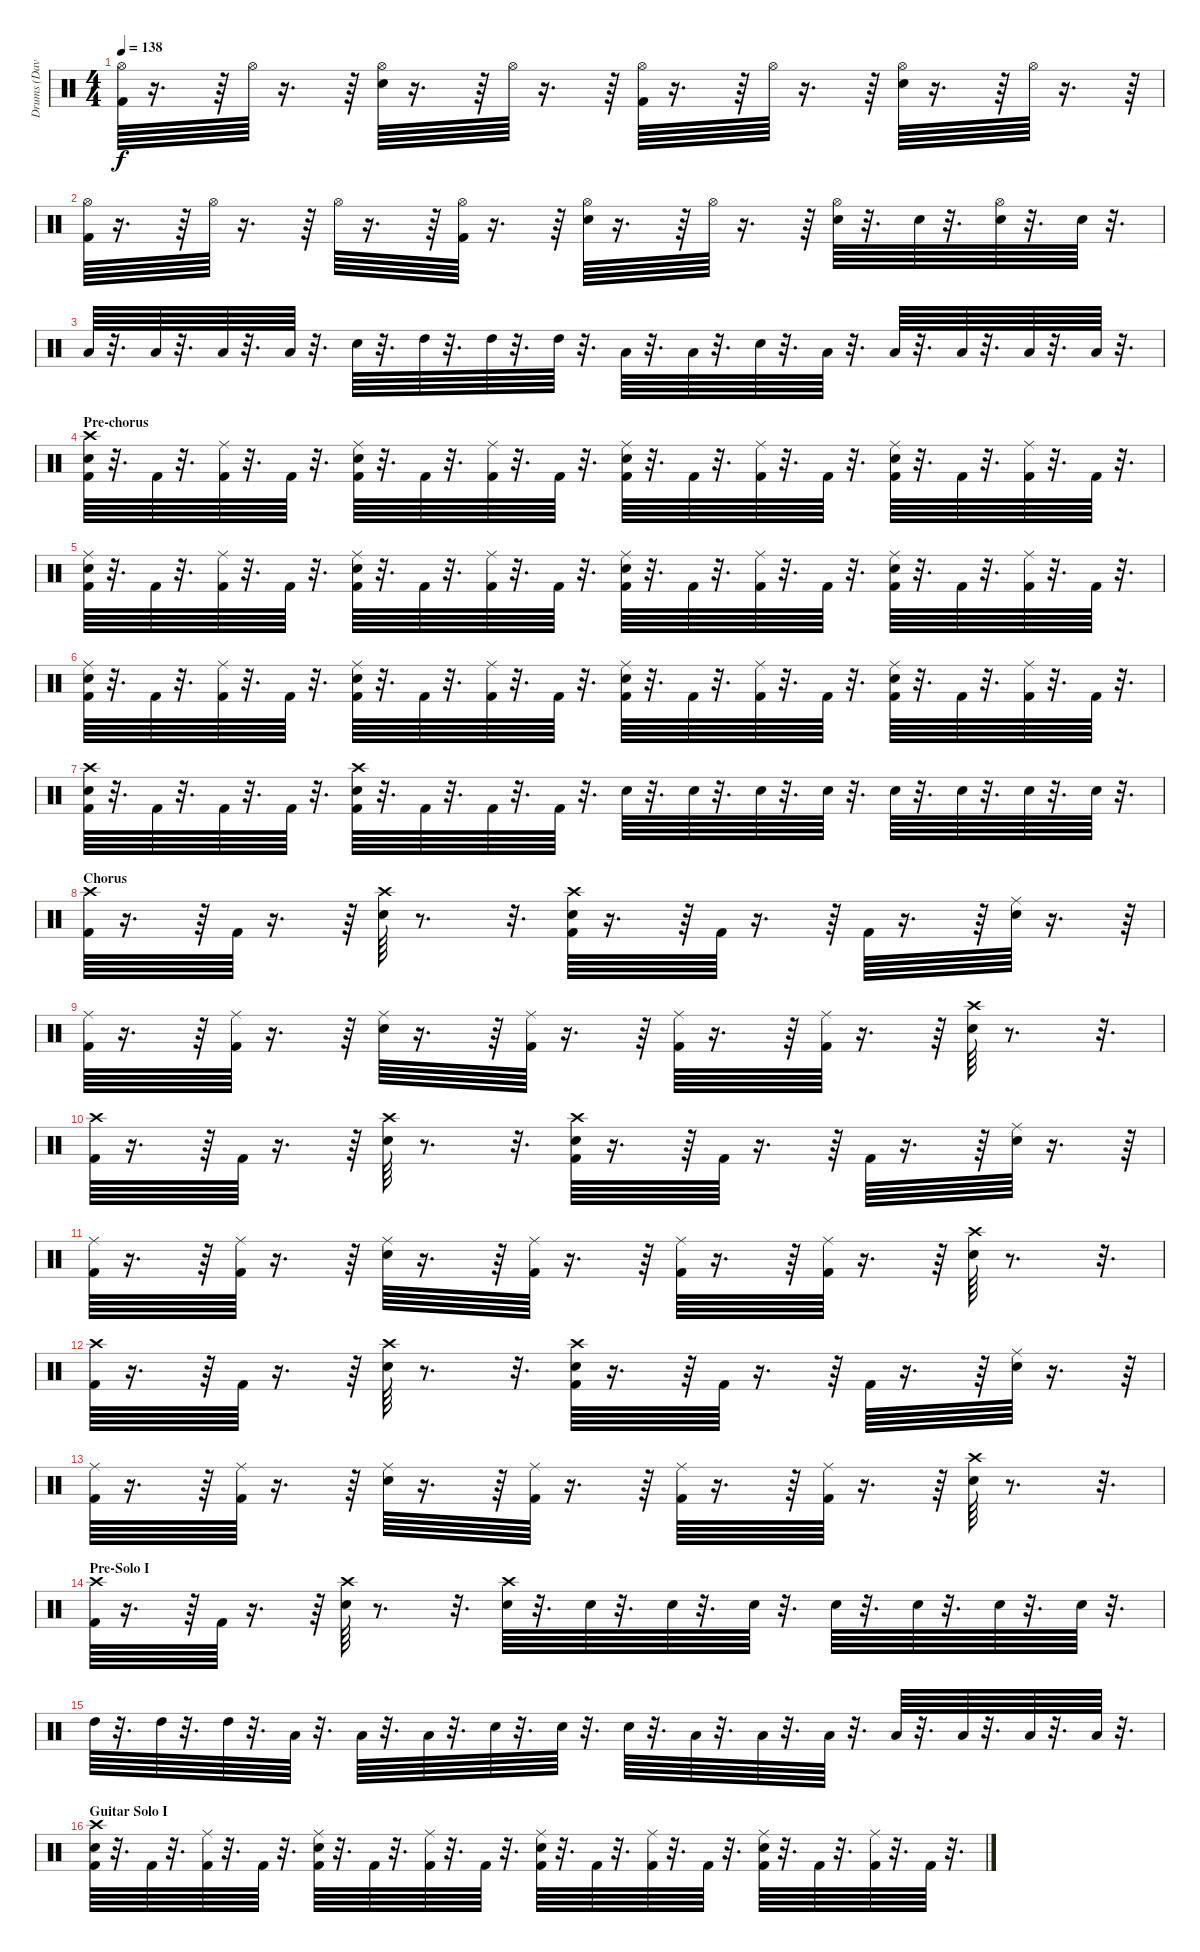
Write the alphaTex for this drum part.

\track ("Drums (Dave)" "Drums (Dav") {instrument percussion}
\staff {score}
\articulation defaults
\ts (4 4)
\tempo 138
\clef neutral
\ks c
("Kick (hit) 2" "Hi-Hat (open)").64{dy f} r.16{d} r.64 "Hi-Hat (open)".64 r.16{d} r.64 ("Snare (hit) 2" "Hi-Hat (open)").64 r.16{d} r.64 "Hi-Hat (open)".64 r.16{d} r.64 ("Kick (hit) 2" "Hi-Hat (open)").64 r.16{d} r.64 "Hi-Hat (open)".64 r.16{d} r.64 ("Snare (hit) 2" "Hi-Hat (open)").64 r.16{d} r.64 "Hi-Hat (open)".64 r.16{d} r.64 |
("Hi-Hat (open)" "Kick (hit) 2").64 r.16{d} r.64 "Hi-Hat (open)".64 r.16{d} r.64 "Hi-Hat (open)".64 r.16{d} r.64 ("Hi-Hat (open)" "Kick (hit) 2").64 r.16{d} r.64 ("Hi-Hat (open)" "Snare (hit) 2").64 r.16{d} r.64 "Hi-Hat (open)".64 r.16{d} r.64 ("Hi-Hat (open)" "Snare (hit) 2").64 r.32{d} "Snare (hit) 2".64 r.32{d} ("Hi-Hat (open)" "Snare (hit) 2").64 r.32{d} "Snare (hit) 2".64 r.32{d} |
"Low Tom (hit)".64 r.32{d} "Low Tom (hit)".64 r.32{d} "Low Tom (hit)".64 r.32{d} "Low Tom (hit)".64 r.32{d} "Snare (hit) 2".64 r.32{d} "High Tom (hit)".64 r.32{d} "High Tom (hit)".64 r.32{d} "High Tom (hit)".64 r.32{d} "Low Tom (hit)".64 r.32{d} "Low Tom (hit)".64 r.32{d} "Snare (hit) 2".64 r.32{d} "Low Tom (hit)".64 r.32{d} "Low Floor Tom (hit)".64 r.32{d} "Low Floor Tom (hit)".64 r.32{d} "Low Floor Tom (hit)".64 r.32{d} "Low Floor Tom (hit)".64 r.32{d} |
\section ("" "Pre-chorus")
("Kick (hit) 2" "Snare (hit) 2" "Crash high (hit)").64 r.32{d} "Kick (hit) 2".64 r.32{d} ("Kick (hit) 2" "Ride (middle)").64 r.32{d} "Kick (hit) 2".64 r.32{d} ("Kick (hit) 2" "Snare (hit) 2" "Ride (middle)").64 r.32{d} "Kick (hit) 2".64 r.32{d} ("Kick (hit) 2" "Ride (middle)").64 r.32{d} "Kick (hit) 2".64 r.32{d} ("Kick (hit) 2" "Snare (hit) 2" "Ride (middle)").64 r.32{d} "Kick (hit) 2".64 r.32{d} ("Kick (hit) 2" "Ride (middle)").64 r.32{d} "Kick (hit) 2".64 r.32{d} ("Kick (hit) 2" "Snare (hit) 2" "Ride (middle)").64 r.32{d} "Kick (hit) 2".64 r.32{d} ("Kick (hit) 2" "Ride (middle)").64 r.32{d} "Kick (hit) 2".64 r.32{d} |
("Kick (hit) 2" "Snare (hit) 2" "Ride (middle)").64 r.32{d} "Kick (hit) 2".64 r.32{d} ("Kick (hit) 2" "Ride (middle)").64 r.32{d} "Kick (hit) 2".64 r.32{d} ("Kick (hit) 2" "Snare (hit) 2" "Ride (middle)").64 r.32{d} "Kick (hit) 2".64 r.32{d} ("Kick (hit) 2" "Ride (middle)").64 r.32{d} "Kick (hit) 2".64 r.32{d} ("Kick (hit) 2" "Snare (hit) 2" "Ride (middle)").64 r.32{d} "Kick (hit) 2".64 r.32{d} ("Kick (hit) 2" "Ride (middle)").64 r.32{d} "Kick (hit) 2".64 r.32{d} ("Kick (hit) 2" "Snare (hit) 2" "Ride (middle)").64 r.32{d} "Kick (hit) 2".64 r.32{d} ("Kick (hit) 2" "Ride (middle)").64 r.32{d} "Kick (hit) 2".64 r.32{d} |
("Kick (hit) 2" "Snare (hit) 2" "Ride (middle)").64 r.32{d} "Kick (hit) 2".64 r.32{d} ("Kick (hit) 2" "Ride (middle)").64 r.32{d} "Kick (hit) 2".64 r.32{d} ("Kick (hit) 2" "Snare (hit) 2" "Ride (middle)").64 r.32{d} "Kick (hit) 2".64 r.32{d} ("Kick (hit) 2" "Ride (middle)").64 r.32{d} "Kick (hit) 2".64 r.32{d} ("Kick (hit) 2" "Snare (hit) 2" "Ride (middle)").64 r.32{d} "Kick (hit) 2".64 r.32{d} ("Kick (hit) 2" "Ride (middle)").64 r.32{d} "Kick (hit) 2".64 r.32{d} ("Kick (hit) 2" "Snare (hit) 2" "Ride (middle)").64 r.32{d} "Kick (hit) 2".64 r.32{d} ("Kick (hit) 2" "Ride (middle)").64 r.32{d} "Kick (hit) 2".64 r.32{d} |
("Crash high (hit)" "Kick (hit) 2" "Snare (hit) 2").64 r.32{d} "Kick (hit) 2".64 r.32{d} "Kick (hit) 2".64 r.32{d} "Kick (hit) 2".64 r.32{d} ("Kick (hit) 2" "Crash high (hit)" "Snare (hit) 2").64 r.32{d} "Kick (hit) 2".64 r.32{d} "Kick (hit) 2".64 r.32{d} "Kick (hit) 2".64 r.32{d} "Snare (hit) 2".64 r.32{d} "Snare (hit) 2".64 r.32{d} "Snare (hit) 2".64 r.32{d} "Snare (hit) 2".64 r.32{d} "Snare (hit) 2".64 r.32{d} "Snare (hit) 2".64 r.32{d} "Snare (hit) 2".64 r.32{d} "Snare (hit) 2".64 r.32{d} |
\section ("" "Chorus")
("Kick (hit) 2" "Crash high (hit)").64 r.16{d} r.64 "Kick (hit) 2".64 r.16{d} r.64 ("Snare (hit) 2" "Crash high (hit)").64 r.8{d} r.32{d} ("Crash high (hit)" "Snare (hit) 2" "Kick (hit) 2").64 r.16{d} r.64 "Kick (hit) 2".64 r.16{d} r.64 "Kick (hit) 2".64 r.16{d} r.64 ("Ride (middle)" "Snare (hit) 2").64 r.16{d} r.64 |
("Ride (middle)" "Kick (hit) 2").64 r.16{d} r.64 ("Ride (middle)" "Kick (hit) 2").64 r.16{d} r.64 ("Ride (middle)" "Snare (hit) 2").64 r.16{d} r.64 ("Ride (middle)" "Kick (hit) 2").64 r.16{d} r.64 ("Ride (middle)" "Kick (hit) 2").64 r.16{d} r.64 ("Ride (middle)" "Kick (hit) 2").64 r.16{d} r.64 ("Snare (hit) 2" "Crash high (hit)").64 r.8{d} r.32{d} |
("Kick (hit) 2" "Crash high (hit)").64 r.16{d} r.64 "Kick (hit) 2".64 r.16{d} r.64 ("Snare (hit) 2" "Crash high (hit)").64 r.8{d} r.32{d} ("Crash high (hit)" "Snare (hit) 2" "Kick (hit) 2").64 r.16{d} r.64 "Kick (hit) 2".64 r.16{d} r.64 "Kick (hit) 2".64 r.16{d} r.64 ("Snare (hit) 2" "Ride (middle)").64 r.16{d} r.64 |
("Ride (middle)" "Kick (hit) 2").64 r.16{d} r.64 ("Ride (middle)" "Kick (hit) 2").64 r.16{d} r.64 ("Ride (middle)" "Snare (hit) 2").64 r.16{d} r.64 ("Ride (middle)" "Kick (hit) 2").64 r.16{d} r.64 ("Ride (middle)" "Kick (hit) 2").64 r.16{d} r.64 ("Ride (middle)" "Kick (hit) 2").64 r.16{d} r.64 ("Snare (hit) 2" "Crash high (hit)").64 r.8{d} r.32{d} |
("Kick (hit) 2" "Crash high (hit)").64 r.16{d} r.64 "Kick (hit) 2".64 r.16{d} r.64 ("Snare (hit) 2" "Crash high (hit)").64 r.8{d} r.32{d} ("Crash high (hit)" "Snare (hit) 2" "Kick (hit) 2").64 r.16{d} r.64 "Kick (hit) 2".64 r.16{d} r.64 "Kick (hit) 2".64 r.16{d} r.64 ("Ride (middle)" "Snare (hit) 2").64 r.16{d} r.64 |
("Ride (middle)" "Kick (hit) 2").64 r.16{d} r.64 ("Ride (middle)" "Kick (hit) 2").64 r.16{d} r.64 ("Ride (middle)" "Snare (hit) 2").64 r.16{d} r.64 ("Ride (middle)" "Kick (hit) 2").64 r.16{d} r.64 ("Ride (middle)" "Kick (hit) 2").64 r.16{d} r.64 ("Ride (middle)" "Kick (hit) 2").64 r.16{d} r.64 ("Snare (hit) 2" "Crash high (hit)").64 r.8{d} r.32{d} |
\section ("" "Pre-Solo I")
("Kick (hit) 2" "Crash high (hit)").64 r.16{d} r.64 "Kick (hit) 2".64 r.16{d} r.64 ("Snare (hit) 2" "Crash high (hit)").64 r.8{d} r.32{d} ("Crash high (hit)" "Snare (hit) 2").64 r.32{d} "Snare (hit) 2".64 r.32{d} "Snare (hit) 2".64 r.32{d} "Snare (hit) 2".64 r.32{d} "Snare (hit) 2".64 r.32{d} "Snare (hit) 2".64 r.32{d} "Snare (hit) 2".64 r.32{d} "Snare (hit) 2".64 r.32{d} |
"High Tom (hit)".64 r.32{d} "High Tom (hit)".64 r.32{d} "High Tom (hit)".64 r.32{d} "Low Tom (hit)".64 r.32{d} "Low Tom (hit)".64 r.32{d} "Low Tom (hit)".64 r.32{d} "Snare (hit) 2".64 r.32{d} "Snare (hit) 2".64 r.32{d} "Snare (hit) 2".64 r.32{d} "Low Tom (hit)".64 r.32{d} "Low Tom (hit)".64 r.32{d} "Low Tom (hit)".64 r.32{d} "Low Tom (hit)".64 r.32{d} "Low Floor Tom (hit)".64 r.32{d} "Low Floor Tom (hit)".64 r.32{d} "Low Floor Tom (hit)".64 r.32{d} |
\section ("" "Guitar Solo I")
("Kick (hit) 2" "Snare (hit) 2" "Crash high (hit)").64 r.32{d} "Kick (hit) 2".64 r.32{d} ("Kick (hit) 2" "Ride (middle)").64 r.32{d} "Kick (hit) 2".64 r.32{d} ("Kick (hit) 2" "Snare (hit) 2" "Ride (middle)").64 r.32{d} "Kick (hit) 2".64 r.32{d} ("Kick (hit) 2" "Ride (middle)").64 r.32{d} "Kick (hit) 2".64 r.32{d} ("Kick (hit) 2" "Snare (hit) 2" "Ride (middle)").64 r.32{d} "Kick (hit) 2".64 r.32{d} ("Kick (hit) 2" "Ride (middle)").64 r.32{d} "Kick (hit) 2".64 r.32{d} ("Kick (hit) 2" "Snare (hit) 2" "Ride (middle)").64 r.32{d} "Kick (hit) 2".64 r.32{d} ("Kick (hit) 2" "Ride (middle)").64 r.32{d} "Kick (hit) 2".64 r.32{d}
